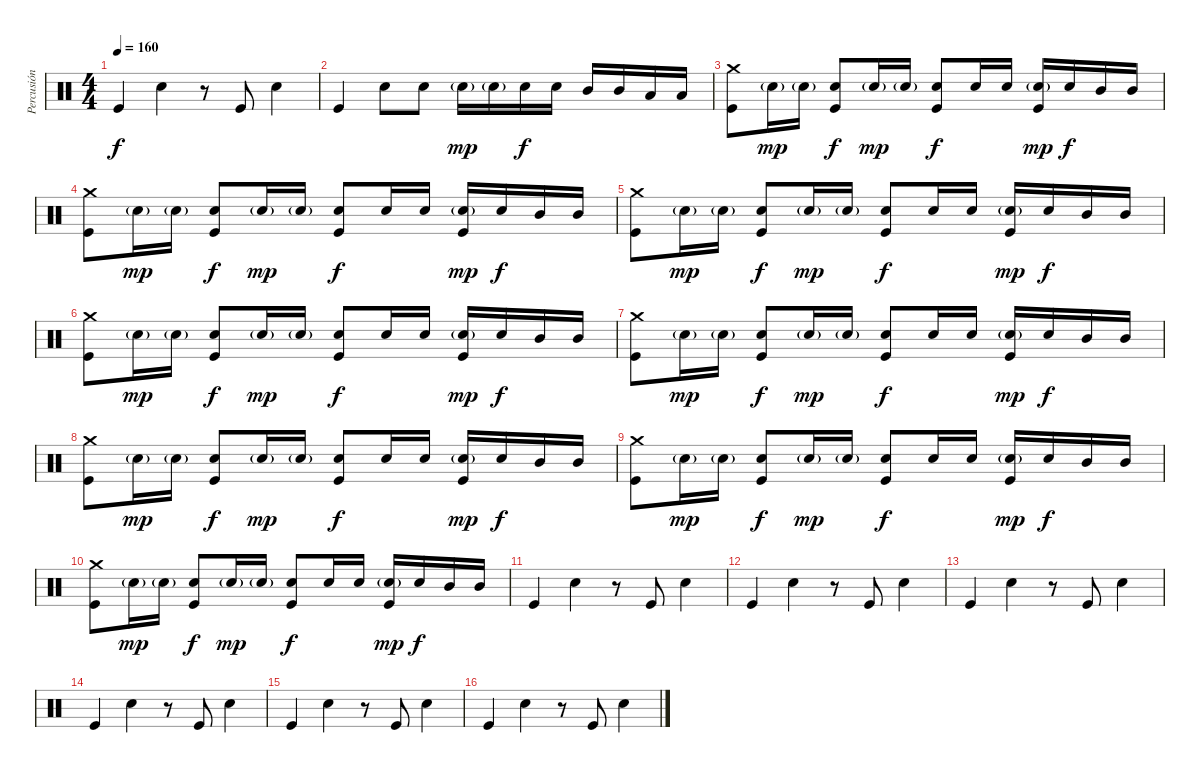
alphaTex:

\track ("Percusión" "Percusión") {instrument percussion}
\staff {score}
\articulation defaults
\ts (4 4)
\tempo 160
\clef neutral
\ks c "Kick (hit)".4{dy f} "Snare (hit) 2".4
r.8 "Kick (hit)".8 "Snare (hit) 2".4 |
"Kick (hit)".4 "Snare (hit) 2".8 "Snare (hit) 2".8 "Snare (hit) 2"{g}.16{dy mp} "Snare (hit) 2"{g}.16 "Snare (hit) 2".16{dy f} "Snare (hit) 2".16 "Mid Tom (hit)".16 "Mid Tom (hit)".16 "Low Floor Tom (hit)".16 "Low Floor Tom (hit)".16 |
("Kick (hit)" "Crash medium (hit)").8 "Snare (hit) 2"{g}.16{dy mp} "Snare (hit) 2"{g}.16 ("Kick (hit)" "Snare (hit) 2").8{dy f} "Snare (hit) 2"{g}.16{dy mp} "Snare (hit) 2"{g}.16 ("Kick (hit)" "Snare (hit) 2").8{dy f} "Snare (hit) 2".16 "Snare (hit) 2".16 ("Kick (hit)" "Snare (hit) 2"{g}).16{dy mp} "Snare (hit) 2".16{dy f} "Mid Tom (hit)".16 "Mid Tom (hit)".16 |
("Kick (hit)" "Crash medium (hit)").8 "Snare (hit) 2"{g}.16{dy mp} "Snare (hit) 2"{g}.16 ("Kick (hit)" "Snare (hit) 2").8{dy f} "Snare (hit) 2"{g}.16{dy mp} "Snare (hit) 2"{g}.16 ("Kick (hit)" "Snare (hit) 2").8{dy f} "Snare (hit) 2".16 "Snare (hit) 2".16 ("Kick (hit)" "Snare (hit) 2"{g}).16{dy mp} "Snare (hit) 2".16{dy f} "Mid Tom (hit)".16 "Mid Tom (hit)".16 |
("Kick (hit)" "Crash medium (hit)").8 "Snare (hit) 2"{g}.16{dy mp} "Snare (hit) 2"{g}.16 ("Kick (hit)" "Snare (hit) 2").8{dy f} "Snare (hit) 2"{g}.16{dy mp} "Snare (hit) 2"{g}.16 ("Kick (hit)" "Snare (hit) 2").8{dy f} "Snare (hit) 2".16 "Snare (hit) 2".16 ("Kick (hit)" "Snare (hit) 2"{g}).16{dy mp} "Snare (hit) 2".16{dy f} "Mid Tom (hit)".16 "Mid Tom (hit)".16 |
("Kick (hit)" "Crash medium (hit)").8 "Snare (hit) 2"{g}.16{dy mp} "Snare (hit) 2"{g}.16 ("Kick (hit)" "Snare (hit) 2").8{dy f} "Snare (hit) 2"{g}.16{dy mp} "Snare (hit) 2"{g}.16 ("Kick (hit)" "Snare (hit) 2").8{dy f} "Snare (hit) 2".16 "Snare (hit) 2".16 ("Kick (hit)" "Snare (hit) 2"{g}).16{dy mp} "Snare (hit) 2".16{dy f} "Mid Tom (hit)".16 "Mid Tom (hit)".16 |
("Kick (hit)" "Crash medium (hit)").8 "Snare (hit) 2"{g}.16{dy mp} "Snare (hit) 2"{g}.16 ("Kick (hit)" "Snare (hit) 2").8{dy f} "Snare (hit) 2"{g}.16{dy mp} "Snare (hit) 2"{g}.16 ("Kick (hit)" "Snare (hit) 2").8{dy f} "Snare (hit) 2".16 "Snare (hit) 2".16 ("Kick (hit)" "Snare (hit) 2"{g}).16{dy mp} "Snare (hit) 2".16{dy f} "Mid Tom (hit)".16 "Mid Tom (hit)".16 |
("Kick (hit)" "Crash medium (hit)").8 "Snare (hit) 2"{g}.16{dy mp} "Snare (hit) 2"{g}.16 ("Kick (hit)" "Snare (hit) 2").8{dy f} "Snare (hit) 2"{g}.16{dy mp} "Snare (hit) 2"{g}.16 ("Kick (hit)" "Snare (hit) 2").8{dy f} "Snare (hit) 2".16 "Snare (hit) 2".16 ("Kick (hit)" "Snare (hit) 2"{g}).16{dy mp} "Snare (hit) 2".16{dy f} "Mid Tom (hit)".16 "Mid Tom (hit)".16 |
("Kick (hit)" "Crash medium (hit)").8 "Snare (hit) 2"{g}.16{dy mp} "Snare (hit) 2"{g}.16 ("Kick (hit)" "Snare (hit) 2").8{dy f} "Snare (hit) 2"{g}.16{dy mp} "Snare (hit) 2"{g}.16 ("Kick (hit)" "Snare (hit) 2").8{dy f} "Snare (hit) 2".16 "Snare (hit) 2".16 ("Kick (hit)" "Snare (hit) 2"{g}).16{dy mp} "Snare (hit) 2".16{dy f} "Mid Tom (hit)".16 "Mid Tom (hit)".16 |
("Kick (hit)" "Crash medium (hit)").8 "Snare (hit) 2"{g}.16{dy mp} "Snare (hit) 2"{g}.16 ("Kick (hit)" "Snare (hit) 2").8{dy f} "Snare (hit) 2"{g}.16{dy mp} "Snare (hit) 2"{g}.16 ("Kick (hit)" "Snare (hit) 2").8{dy f} "Snare (hit) 2".16 "Snare (hit) 2".16 ("Kick (hit)" "Snare (hit) 2"{g}).16{dy mp} "Snare (hit) 2".16{dy f} "Mid Tom (hit)".16 "Mid Tom (hit)".16 |
"Kick (hit)".4 "Snare (hit) 2".4 r.8 "Kick (hit)".8 "Snare (hit) 2".4 |
"Kick (hit)".4 "Snare (hit) 2".4 r.8 "Kick (hit)".8 "Snare (hit) 2".4 |
"Kick (hit)".4 "Snare (hit) 2".4 r.8 "Kick (hit)".8 "Snare (hit) 2".4 |
"Kick (hit)".4 "Snare (hit) 2".4 r.8 "Kick (hit)".8 "Snare (hit) 2".4 |
"Kick (hit)".4 "Snare (hit) 2".4 r.8 "Kick (hit)".8 "Snare (hit) 2".4 |
"Kick (hit)".4 "Snare (hit) 2".4 r.8 "Kick (hit)".8 "Snare (hit) 2".4
